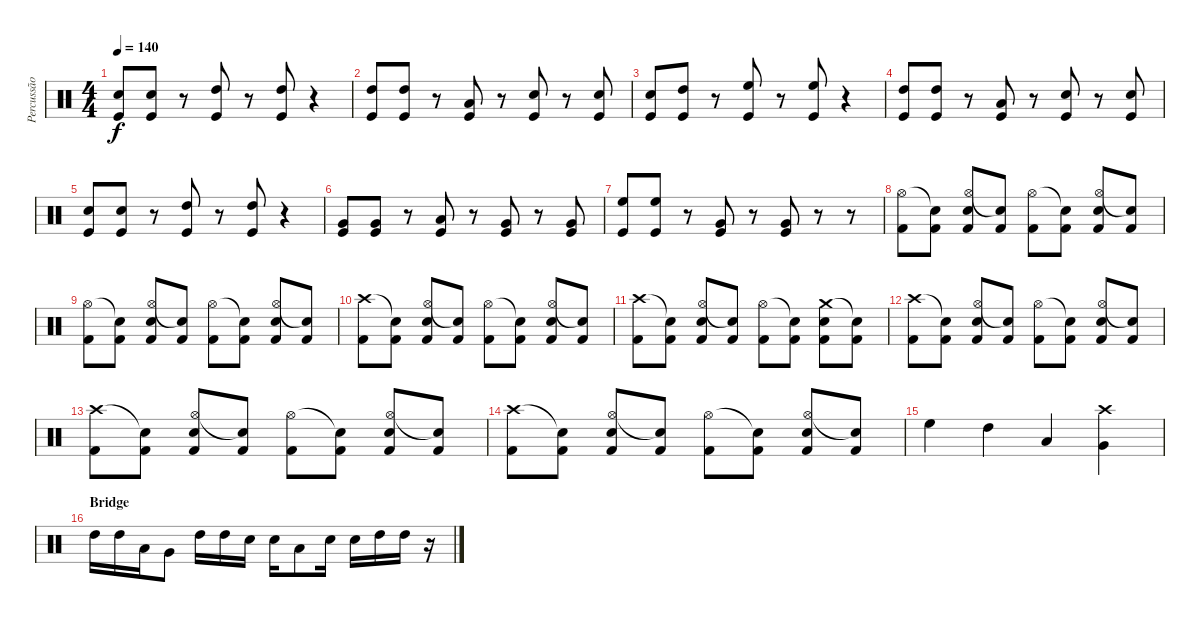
\track ("Percussão (Lucas)" "Percussão ") {instrument percussion}
\staff {score}
\articulation defaults
\ts (4 4)
\tempo 140
\clef neutral
\ks c
("Electric Snare (hit)" "Kick (hit)").8{dy f} ("Electric Snare (hit)" "Kick (hit)").8 r.8 ("High Tom (hit)" "Kick (hit)").8 r.8 ("High Tom (hit)" "Kick (hit)").8 r.4 |
("High Tom (hit)" "Kick (hit)").8 ("High Tom (hit)" "Kick (hit)").8 r.8 ("Low Tom (hit)" "Kick (hit)").8 r.8 ("Electric Snare (hit)" "Kick (hit)").8 r.8 ("Electric Snare (hit)" "Kick (hit)").8 |
("Electric Snare (hit)" "Kick (hit)").8 ("High Tom (hit)" "Kick (hit)").8 r.8 ("High Floor Tom (hit)" "Kick (hit)").8 r.8 ("High Floor Tom (hit)" "Kick (hit)").8 r.4 |
("High Tom (hit)" "Kick (hit)").8 ("High Tom (hit)" "Kick (hit)").8 r.8 ("Low Tom (hit)" "Kick (hit)").8 r.8 ("Electric Snare (hit)" "Kick (hit)").8 r.8 ("Electric Snare (hit)" "Kick (hit)").8 |
("Electric Snare (hit)" "Kick (hit)").8 ("Electric Snare (hit)" "Kick (hit)").8 r.8 ("High Tom (hit)" "Kick (hit)").8 r.8 ("High Tom (hit)" "Kick (hit)").8 r.4 |
("Very Low Tom (hit)" "Kick (hit)").8 ("Very Low Tom (hit)" "Kick (hit)").8 r.8 ("Low Tom (hit)" "Kick (hit)").8 r.8 ("Very Low Tom (hit)" "Kick (hit)").8 r.8 ("Very Low Tom (hit)" "Kick (hit)").8 |
("High Floor Tom (hit)" "Kick (hit)").8 ("High Floor Tom (hit)" "Kick (hit)").8 r.8 ("Very Low Tom (hit)" "Kick (hit)").8 r.8 ("Very Low Tom (hit)" "Kick (hit)").8 r.8 r.8 |
("Hi-Hat (open)" "Kick (hit) 2").8 ("Snare (hit)"{t} "Kick (hit) 2").8 ("Hi-Hat (open)" "Electric Snare (hit)" "Kick (hit) 2").8 ("Snare (hit)"{t} "Kick (hit) 2").8 ("Hi-Hat (open)" "Kick (hit) 2").8 ("Snare (hit)"{t} "Kick (hit) 2").8 ("Hi-Hat (open)" "Electric Snare (hit)" "Kick (hit) 2").8 ("Snare (hit)"{t} "Kick (hit) 2").8 |
("Hi-Hat (open)" "Kick (hit) 2").8 ("Snare (hit)"{t} "Kick (hit) 2").8 ("Hi-Hat (open)" "Electric Snare (hit)" "Kick (hit) 2").8 ("Snare (hit)"{t} "Kick (hit) 2").8 ("Hi-Hat (open)" "Kick (hit) 2").8 ("Snare (hit)"{t} "Kick (hit) 2").8 ("Hi-Hat (open)" "Electric Snare (hit)" "Kick (hit) 2").8 ("Snare (hit)"{t} "Kick (hit) 2").8 |
("Crash high (hit)" "Kick (hit) 2").8 ("Snare (hit)"{t} "Kick (hit) 2").8 ("Hi-Hat (open)" "Electric Snare (hit)" "Kick (hit) 2").8 ("Snare (hit)"{t} "Kick (hit) 2").8 ("Hi-Hat (open)" "Kick (hit) 2").8 ("Snare (hit)"{t} "Kick (hit) 2").8 ("Hi-Hat (open)" "Electric Snare (hit)" "Kick (hit) 2").8 ("Snare (hit)"{t} "Kick (hit) 2").8 |
("Crash high (hit)" "Kick (hit) 2").8 ("Snare (hit)"{t} "Kick (hit) 2").8 ("Hi-Hat (open)" "Electric Snare (hit)" "Kick (hit) 2").8 ("Snare (hit)"{t} "Kick (hit) 2").8 ("Hi-Hat (open)" "Kick (hit) 2").8 ("Snare (hit)"{t} "Kick (hit) 2").8 ("Crash medium (hit)" "Electric Snare (hit)" "Kick (hit) 2").8 ("Snare (hit)"{t} "Kick (hit) 2").8 |
("Crash high (hit)" "Kick (hit) 2").8 ("Snare (hit)"{t} "Kick (hit) 2").8 ("Hi-Hat (open)" "Electric Snare (hit)" "Kick (hit) 2").8 ("Snare (hit)"{t} "Kick (hit) 2").8 ("Hi-Hat (open)" "Kick (hit) 2").8 ("Snare (hit)"{t} "Kick (hit) 2").8 ("Hi-Hat (open)" "Electric Snare (hit)" "Kick (hit) 2").8 ("Snare (hit)"{t} "Kick (hit) 2").8 |
("Crash high (hit)" "Kick (hit) 2").8 ("Snare (hit)"{t} "Kick (hit) 2").8 ("Hi-Hat (open)" "Electric Snare (hit)" "Kick (hit) 2").8 ("Snare (hit)"{t} "Kick (hit) 2").8 ("Hi-Hat (open)" "Kick (hit) 2").8 ("Snare (hit)"{t} "Kick (hit) 2").8 ("Hi-Hat (open)" "Electric Snare (hit)" "Kick (hit) 2").8 ("Snare (hit)"{t} "Kick (hit) 2").8 |
("Crash high (hit)" "Kick (hit) 2").8 ("Snare (hit)"{t} "Kick (hit) 2").8 ("Hi-Hat (open)" "Electric Snare (hit)" "Kick (hit) 2").8 ("Snare (hit)"{t} "Kick (hit) 2").8 ("Hi-Hat (open)" "Kick (hit) 2").8 ("Snare (hit)"{t} "Kick (hit) 2").8 ("Hi-Hat (open)" "Electric Snare (hit)" "Kick (hit) 2").8 ("Snare (hit)"{t} "Kick (hit) 2").8 |
"High Floor Tom (hit)".4 "High Tom (hit)".4 "Low Tom (hit)".4 ("Crash high (hit)" "Very Low Tom (hit)").4 |
\section ("" "Bridge")
"High Tom (hit)".16 "High Tom (hit)".16 "Low Tom (hit)".16 "Very Low Tom (hit)".8 "High Tom (hit)".16 "High Tom (hit)".16 "Electric Snare (hit)".16 "Electric Snare (hit)".16 "Low Tom (hit)".8 "Electric Snare (hit)".16 "Electric Snare (hit)".16 "High Tom (hit)".16 "High Tom (hit)".16 r.16
